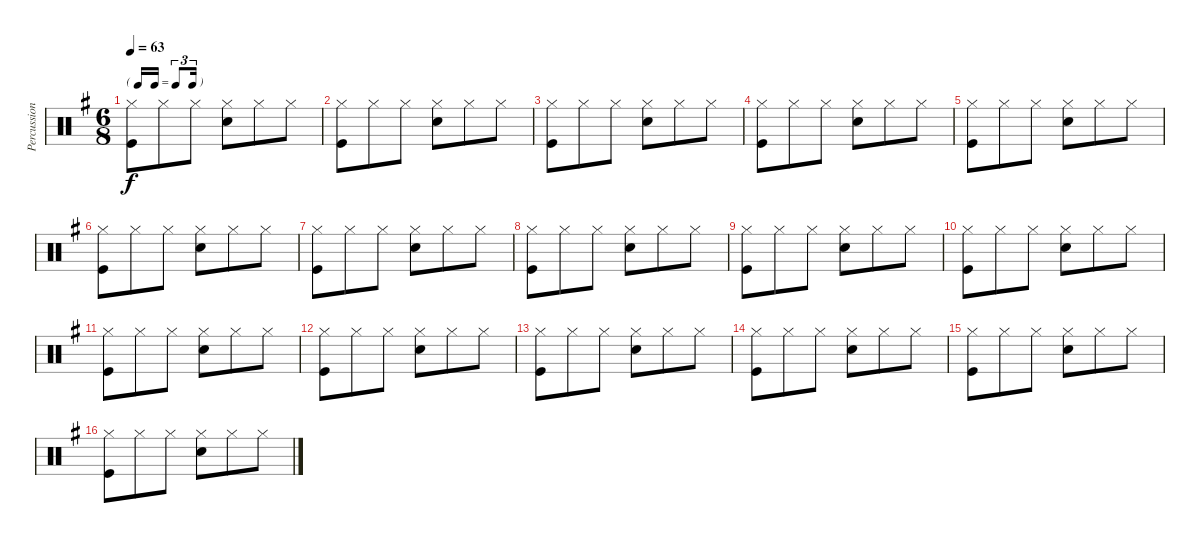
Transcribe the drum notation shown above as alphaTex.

\track ("Percussion" "Percussion") {instrument percussion}
\staff {score}
\articulation defaults
\ts (6 8)
\tf triplet16th
\tempo 63
\clef neutral
\ks g
("Hi-Hat (closed)" "Kick (hit)").8{dy f} "Hi-Hat (closed)".8 "Hi-Hat (closed)".8 ("Hi-Hat (closed)" "Electric Snare (hit)").8 "Hi-Hat (closed)".8 "Hi-Hat (closed)".8 |
("Hi-Hat (closed)" "Kick (hit)").8 "Hi-Hat (closed)".8 "Hi-Hat (closed)".8 ("Hi-Hat (closed)" "Electric Snare (hit)").8 "Hi-Hat (closed)".8 "Hi-Hat (closed)".8 |
("Hi-Hat (closed)" "Kick (hit)").8 "Hi-Hat (closed)".8 "Hi-Hat (closed)".8 ("Hi-Hat (closed)" "Electric Snare (hit)").8 "Hi-Hat (closed)".8 "Hi-Hat (closed)".8 |
("Hi-Hat (closed)" "Kick (hit)").8 "Hi-Hat (closed)".8 "Hi-Hat (closed)".8 ("Hi-Hat (closed)" "Electric Snare (hit)").8 "Hi-Hat (closed)".8 "Hi-Hat (closed)".8 |
("Hi-Hat (closed)" "Kick (hit)").8 "Hi-Hat (closed)".8 "Hi-Hat (closed)".8 ("Hi-Hat (closed)" "Electric Snare (hit)").8 "Hi-Hat (closed)".8 "Hi-Hat (closed)".8 |
("Hi-Hat (closed)" "Kick (hit)").8 "Hi-Hat (closed)".8 "Hi-Hat (closed)".8 ("Hi-Hat (closed)" "Electric Snare (hit)").8 "Hi-Hat (closed)".8 "Hi-Hat (closed)".8 |
("Hi-Hat (closed)" "Kick (hit)").8 "Hi-Hat (closed)".8 "Hi-Hat (closed)".8 ("Hi-Hat (closed)" "Electric Snare (hit)").8 "Hi-Hat (closed)".8 "Hi-Hat (closed)".8 |
("Hi-Hat (closed)" "Kick (hit)").8 "Hi-Hat (closed)".8 "Hi-Hat (closed)".8 ("Hi-Hat (closed)" "Electric Snare (hit)").8 "Hi-Hat (closed)".8 "Hi-Hat (closed)".8 |
("Hi-Hat (closed)" "Kick (hit)").8 "Hi-Hat (closed)".8 "Hi-Hat (closed)".8 ("Hi-Hat (closed)" "Electric Snare (hit)").8 "Hi-Hat (closed)".8 "Hi-Hat (closed)".8 |
("Hi-Hat (closed)" "Kick (hit)").8 "Hi-Hat (closed)".8 "Hi-Hat (closed)".8 ("Hi-Hat (closed)" "Electric Snare (hit)").8 "Hi-Hat (closed)".8 "Hi-Hat (closed)".8 |
("Hi-Hat (closed)" "Kick (hit)").8 "Hi-Hat (closed)".8 "Hi-Hat (closed)".8 ("Hi-Hat (closed)" "Electric Snare (hit)").8 "Hi-Hat (closed)".8 "Hi-Hat (closed)".8 |
("Hi-Hat (closed)" "Kick (hit)").8 "Hi-Hat (closed)".8 "Hi-Hat (closed)".8 ("Hi-Hat (closed)" "Electric Snare (hit)").8 "Hi-Hat (closed)".8 "Hi-Hat (closed)".8 |
("Hi-Hat (closed)" "Kick (hit)").8 "Hi-Hat (closed)".8 "Hi-Hat (closed)".8 ("Hi-Hat (closed)" "Electric Snare (hit)").8 "Hi-Hat (closed)".8 "Hi-Hat (closed)".8 |
("Hi-Hat (closed)" "Kick (hit)").8 "Hi-Hat (closed)".8 "Hi-Hat (closed)".8 ("Hi-Hat (closed)" "Electric Snare (hit)").8 "Hi-Hat (closed)".8 "Hi-Hat (closed)".8 |
("Hi-Hat (closed)" "Kick (hit)").8 "Hi-Hat (closed)".8 "Hi-Hat (closed)".8 ("Hi-Hat (closed)" "Electric Snare (hit)").8 "Hi-Hat (closed)".8 "Hi-Hat (closed)".8 |
("Hi-Hat (closed)" "Kick (hit)").8 "Hi-Hat (closed)".8 "Hi-Hat (closed)".8 ("Hi-Hat (closed)" "Electric Snare (hit)").8 "Hi-Hat (closed)".8 "Hi-Hat (closed)".8
